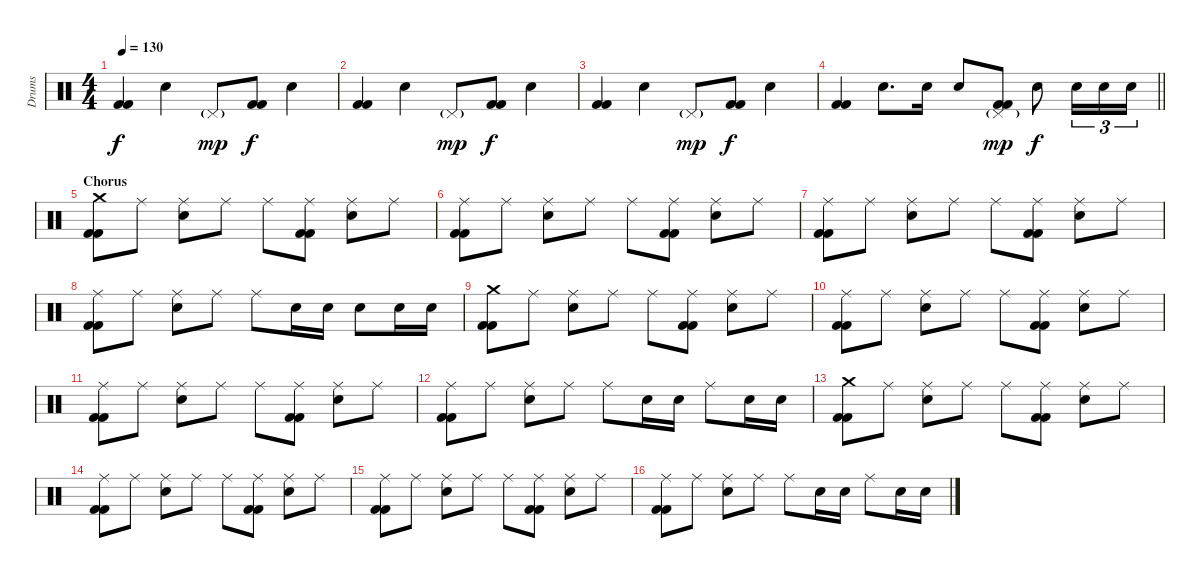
\track ("Drums" "Drums") {instrument percussion}
\staff {score}
\articulation defaults
\ts (4 4)
\tempo 130
\clef neutral
\ks c
("Kick (hit) 2" "Kick (hit) 2").4{dy f} "Electric Snare (hit)".4 "Pedal Hi-Hat (hit)"{g}.8{dy mp} ("Kick (hit) 2" "Kick (hit) 2").8{dy f} "Electric Snare (hit)".4 |
("Kick (hit) 2" "Kick (hit) 2").4 "Electric Snare (hit)".4 "Pedal Hi-Hat (hit)"{g}.8{dy mp} ("Kick (hit) 2" "Kick (hit) 2").8{dy f} "Electric Snare (hit)".4 |
("Kick (hit) 2" "Kick (hit) 2").4 "Electric Snare (hit)".4 "Pedal Hi-Hat (hit)"{g}.8{dy mp} ("Kick (hit) 2" "Kick (hit) 2").8{dy f} "Electric Snare (hit)".4 |
\barLineRight lightlight
("Kick (hit) 2" "Kick (hit) 2").4 "Electric Snare (hit)".8{d} "Electric Snare (hit)".16 "Electric Snare (hit)".8 ("Pedal Hi-Hat (hit)"{g} "Kick (hit) 2" "Kick (hit) 2").8{dy mp} "Electric Snare (hit)".8{dy f} "Electric Snare (hit)".16{tu (3 2)} "Electric Snare (hit)".16{tu (3 2)} "Electric Snare (hit)".16{tu (3 2)} |
\section ("" "Chorus")
("Crash medium (hit)" "Kick (hit) 2" "Kick (hit) 2").8 "Ride (middle)".8 ("Ride (middle)" "Electric Snare (hit)").8 "Ride (middle)".8 "Ride (middle)".8 ("Ride (middle)" "Kick (hit) 2" "Kick (hit) 2").8 ("Ride (middle)" "Electric Snare (hit)").8 "Ride (middle)".8 |
("Ride (middle)" "Kick (hit) 2" "Kick (hit) 2").8 "Ride (middle)".8 ("Ride (middle)" "Electric Snare (hit)").8 "Ride (middle)".8 "Ride (middle)".8 ("Ride (middle)" "Kick (hit) 2" "Kick (hit) 2").8 ("Ride (middle)" "Electric Snare (hit)").8 "Ride (middle)".8 |
("Ride (middle)" "Kick (hit) 2" "Kick (hit) 2").8 "Ride (middle)".8 ("Ride (middle)" "Electric Snare (hit)").8 "Ride (middle)".8 "Ride (middle)".8 ("Ride (middle)" "Kick (hit) 2" "Kick (hit) 2").8 ("Ride (middle)" "Electric Snare (hit)").8 "Ride (middle)".8 |
("Ride (middle)" "Kick (hit) 2" "Kick (hit) 2").8 "Ride (middle)".8 ("Ride (middle)" "Electric Snare (hit)").8 "Ride (middle)".8 "Ride (middle)".8 "Electric Snare (hit)".16 "Electric Snare (hit)".16 "Electric Snare (hit)".8 "Electric Snare (hit)".16 "Electric Snare (hit)".16 |
("Crash medium (hit)" "Kick (hit) 2" "Kick (hit) 2").8 "Ride (middle)".8 ("Ride (middle)" "Electric Snare (hit)").8 "Ride (middle)".8 "Ride (middle)".8 ("Ride (middle)" "Kick (hit) 2" "Kick (hit) 2").8 ("Ride (middle)" "Electric Snare (hit)").8 "Ride (middle)".8 |
("Ride (middle)" "Kick (hit) 2" "Kick (hit) 2").8 "Ride (middle)".8 ("Ride (middle)" "Electric Snare (hit)").8 "Ride (middle)".8 "Ride (middle)".8 ("Ride (middle)" "Kick (hit) 2" "Kick (hit) 2").8 ("Ride (middle)" "Electric Snare (hit)").8 "Ride (middle)".8 |
("Ride (middle)" "Kick (hit) 2" "Kick (hit) 2").8 "Ride (middle)".8 ("Ride (middle)" "Electric Snare (hit)").8 "Ride (middle)".8 "Ride (middle)".8 ("Ride (middle)" "Kick (hit) 2" "Kick (hit) 2").8 ("Ride (middle)" "Electric Snare (hit)").8 "Ride (middle)".8 |
("Ride (middle)" "Kick (hit) 2" "Kick (hit) 2").8 "Ride (middle)".8 ("Ride (middle)" "Electric Snare (hit)").8 "Ride (middle)".8 "Ride (middle)".8 "Electric Snare (hit)".16 "Electric Snare (hit)".16 "Ride (middle)".8 "Electric Snare (hit)".16 "Electric Snare (hit)".16 |
("Crash medium (hit)" "Kick (hit) 2" "Kick (hit) 2").8 "Ride (middle)".8 ("Ride (middle)" "Electric Snare (hit)").8 "Ride (middle)".8 "Ride (middle)".8 ("Ride (middle)" "Kick (hit) 2" "Kick (hit) 2").8 ("Ride (middle)" "Electric Snare (hit)").8 "Ride (middle)".8 |
("Ride (middle)" "Kick (hit) 2" "Kick (hit) 2").8 "Ride (middle)".8 ("Ride (middle)" "Electric Snare (hit)").8 "Ride (middle)".8 "Ride (middle)".8 ("Ride (middle)" "Kick (hit) 2" "Kick (hit) 2").8 ("Ride (middle)" "Electric Snare (hit)").8 "Ride (middle)".8 |
("Ride (middle)" "Kick (hit) 2" "Kick (hit) 2").8 "Ride (middle)".8 ("Ride (middle)" "Electric Snare (hit)").8 "Ride (middle)".8 "Ride (middle)".8 ("Ride (middle)" "Kick (hit) 2" "Kick (hit) 2").8 ("Ride (middle)" "Electric Snare (hit)").8 "Ride (middle)".8 |
("Ride (middle)" "Kick (hit) 2" "Kick (hit) 2").8 "Ride (middle)".8 ("Ride (middle)" "Electric Snare (hit)").8 "Ride (middle)".8 "Ride (middle)".8 "Electric Snare (hit)".16 "Electric Snare (hit)".16 "Ride (middle)".8 "Electric Snare (hit)".16 "Electric Snare (hit)".16
